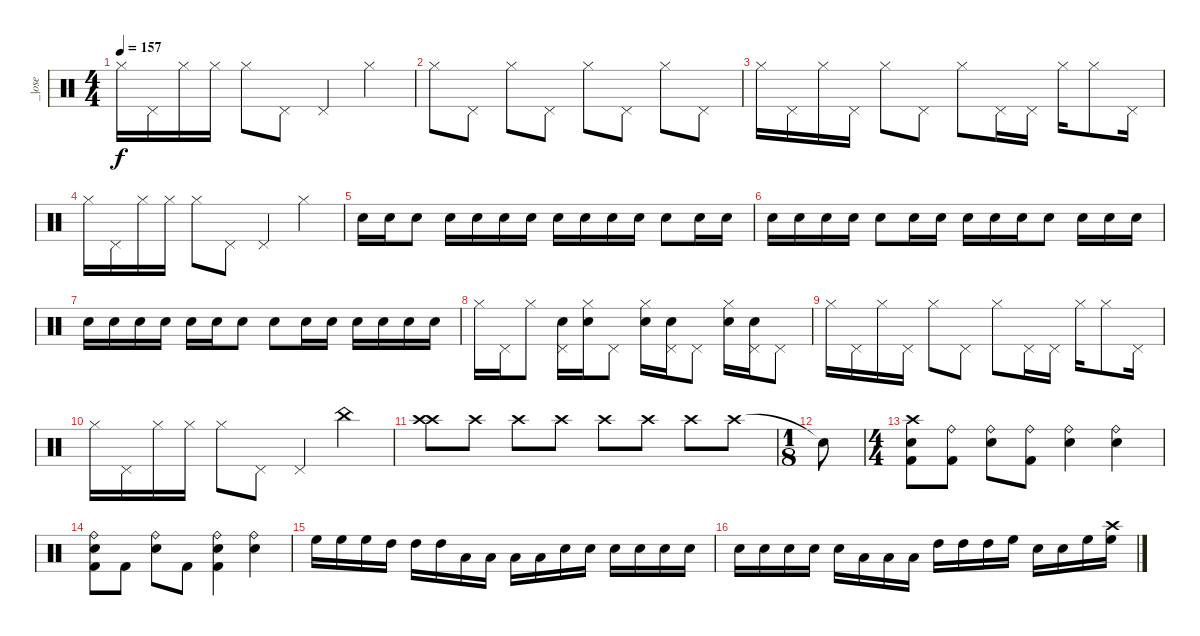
\track ("_|ose" "_|ose") {instrument percussion}
\staff {score}
\articulation defaults
\ts (4 4)
\tempo 157
\clef neutral
\ks c "Hi-Hat (closed)".16{dy f} "Pedal Hi-Hat (hit)".16 "Hi-Hat (closed)".16 "Hi-Hat (closed)".16 "Hi-Hat (closed)".8 "Pedal Hi-Hat (hit)".8 "Pedal Hi-Hat (hit)".4 "Hi-Hat (closed)".4
|
"Hi-Hat (closed)".8 "Pedal Hi-Hat (hit)".8 "Hi-Hat (closed)".8 "Pedal Hi-Hat (hit)".8 "Hi-Hat (closed)".8 "Pedal Hi-Hat (hit)".8 "Hi-Hat (closed)".8 "Pedal Hi-Hat (hit)".8 |
"Hi-Hat (closed)".16 "Pedal Hi-Hat (hit)".16 "Hi-Hat (closed)".16 "Pedal Hi-Hat (hit)".16 "Hi-Hat (closed)".8 "Pedal Hi-Hat (hit)".8 "Hi-Hat (closed)".8 "Pedal Hi-Hat (hit)".16 "Pedal Hi-Hat (hit)".16 "Hi-Hat (closed)".16 "Hi-Hat (closed)".8 "Pedal Hi-Hat (hit)".16 |
"Hi-Hat (closed)".16 "Pedal Hi-Hat (hit)".16 "Hi-Hat (closed)".16 "Hi-Hat (closed)".16 "Hi-Hat (closed)".8 "Pedal Hi-Hat (hit)".8 "Pedal Hi-Hat (hit)".4 "Hi-Hat (closed)".4 |
"Snare (hit) 2".16 "Snare (hit) 2".16 "Snare (hit) 2".8 "Snare (hit) 2".16 "Snare (hit) 2".16 "Snare (hit) 2".16 "Snare (hit) 2".16 "Snare (hit) 2".16 "Snare (hit) 2".16 "Snare (hit) 2".16 "Snare (hit) 2".16 "Snare (hit) 2".8 "Snare (hit) 2".16 "Snare (hit) 2".16 |
"Snare (hit) 2".16 "Snare (hit) 2".16 "Snare (hit) 2".16 "Snare (hit) 2".16 "Snare (hit) 2".8 "Snare (hit) 2".16 "Snare (hit) 2".16 "Snare (hit) 2".16 "Snare (hit) 2".16 "Snare (hit) 2".16 "Snare (hit) 2".8 "Snare (hit) 2".16 "Snare (hit) 2".16 "Snare (hit) 2".16 |
"Snare (hit) 2".16 "Snare (hit) 2".16 "Snare (hit) 2".16 "Snare (hit) 2".16 "Snare (hit) 2".16 "Snare (hit) 2".16 "Snare (hit) 2".8 "Snare (hit) 2".8 "Snare (hit) 2".16 "Snare (hit) 2".16 "Snare (hit) 2".16 "Snare (hit) 2".16 "Snare (hit) 2".16 "Snare (hit) 2".16 |
"Hi-Hat (closed)".16 "Pedal Hi-Hat (hit)".16 "Hi-Hat (closed)".8 ("Pedal Hi-Hat (hit)" "Snare (hit) 2").16 ("Hi-Hat (closed)" "Snare (hit) 2").16 "Pedal Hi-Hat (hit)".8 ("Hi-Hat (closed)" "Snare (hit) 2").16 ("Pedal Hi-Hat (hit)" "Snare (hit) 2").16 "Pedal Hi-Hat (hit)".8 ("Hi-Hat (closed)" "Snare (hit) 2").16 ("Pedal Hi-Hat (hit)" "Snare (hit) 2").16 "Pedal Hi-Hat (hit)".8 |
"Hi-Hat (closed)".16 "Pedal Hi-Hat (hit)".16 "Hi-Hat (closed)".16 "Pedal Hi-Hat (hit)".16 "Hi-Hat (closed)".8 "Pedal Hi-Hat (hit)".8 "Hi-Hat (closed)".8 "Pedal Hi-Hat (hit)".16 "Pedal Hi-Hat (hit)".16 "Hi-Hat (closed)".16 "Hi-Hat (closed)".8 "Pedal Hi-Hat (hit)".16 |
"Hi-Hat (closed)".16 "Pedal Hi-Hat (hit)".16 "Hi-Hat (closed)".16 "Hi-Hat (closed)".16 "Hi-Hat (closed)".8 "Pedal Hi-Hat (hit)".8 "Pedal Hi-Hat (hit)".4 "China (hit)".4 |
("Crash high (hit)" "Crash high (hit)").8 "Crash high (hit)".8 "Crash high (hit)".8 "Crash high (hit)".8 "Crash high (hit)".8 "Crash high (hit)".8 "Crash high (hit)".8 "Crash high (hit)".8 |
\ts (1 8)
"Snare (hit)"{t}.8 |
\ts (4 4)
("Crash high (hit)" "Electric Snare (hit)" "Kick (hit) 2").8 ("Ride (bell)" "Kick (hit) 2").8 ("Ride (bell)" "Electric Snare (hit)").8 ("Ride (bell)" "Kick (hit) 2").8 ("Ride (bell)" "Electric Snare (hit)").4 ("Ride (bell)" "Electric Snare (hit)").4 |
("Ride (bell)" "Electric Snare (hit)" "Kick (hit) 2").8 "Kick (hit) 2".8 ("Ride (bell)" "Electric Snare (hit)").8 "Kick (hit) 2".8 ("Ride (bell)" "Electric Snare (hit)" "Kick (hit) 2").4 ("Ride (bell)" "Electric Snare (hit)").4 |
"High Floor Tom (hit)".16 "High Floor Tom (hit)".16 "High Floor Tom (hit)".16 "High Tom (hit)".16 "High Tom (hit)".16 "High Tom (hit)".16 "Low Tom (hit)".16 "Low Tom (hit)".16 "Low Tom (hit)".16 "Low Tom (hit)".16 "Electric Snare (hit)".16 "Electric Snare (hit)".16 "Electric Snare (hit)".16 "Snare (hit) 2".16 "Snare (hit) 2".16 "Snare (hit) 2".16 |
"Snare (hit) 2".16 "Snare (hit) 2".16 "Electric Snare (hit)".16 "Electric Snare (hit)".16 "Electric Snare (hit)".16 "Low Tom (hit)".16 "Low Tom (hit)".16 "Low Tom (hit)".16 "High Tom (hit)".16 "High Tom (hit)".16 "High Tom (hit)".16 "High Floor Tom (hit)".16 "Electric Snare (hit)".16 "Snare (hit) 2".16 "High Floor Tom (hit)".16 ("Crash high (hit)" "High Floor Tom (hit)").16
